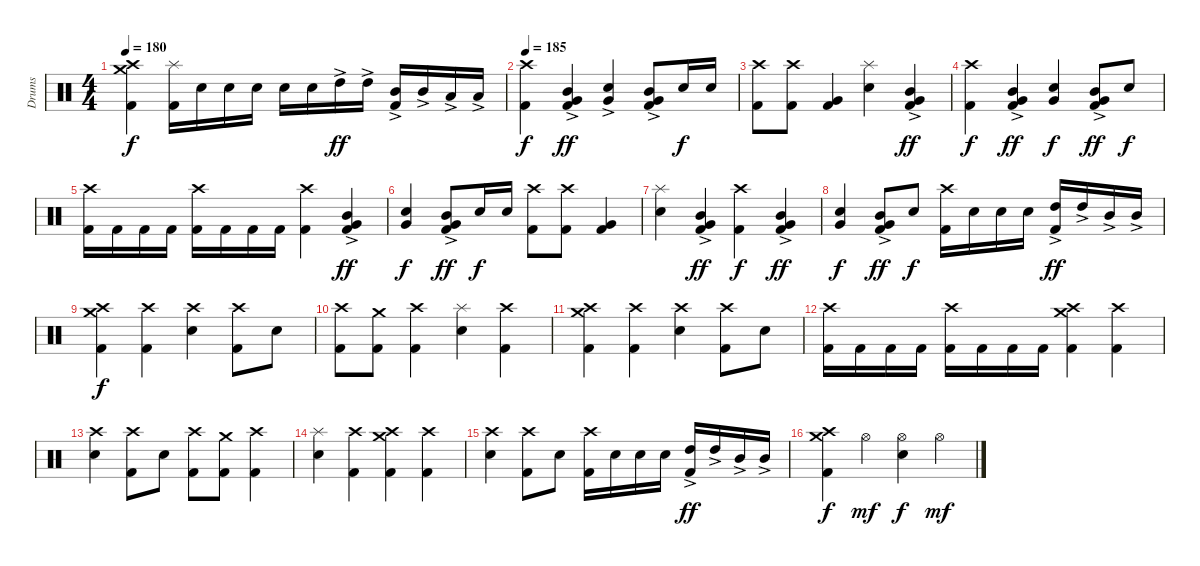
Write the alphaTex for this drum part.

\track ("Drums" "Drums") {instrument percussion}
\staff {score}
\articulation defaults
\ts (4 4)
\tempo 180
\clef neutral
\ks c
("Crash high (hit)" "Kick (hit) 2" "Crash medium (hit)").4{dy f} ("Splash (hit)" "Kick (hit) 2").16 "Snare (hit) 2".16 "Snare (hit) 2".16 "Snare (hit) 2".16 "Snare (hit) 2".16 "Snare (hit) 2".16 "High Tom (hit)"{ac}.16{dy ff} "High Tom (hit)"{ac}.16 ("Mid Tom (hit)"{ac} "Kick (hit) 2").16 "Mid Tom (hit)"{ac}.16 "Low Tom (hit)"{ac}.16 "Low Tom (hit)"{ac}.16 |
\tempo 185
("Crash high (hit)" "Kick (hit) 2").4{dy f} ("Kick (hit) 2" "Very Low Tom (hit)" "Mid Tom (hit)"{ac}).4{dy ff} ("Snare (hit) 2" "Very Low Tom (hit)"{ac}).4 ("Kick (hit) 2" "Very Low Tom (hit)" "Mid Tom (hit)"{ac}).8 "Snare (hit) 2".16{dy f} "Snare (hit) 2".16 |
("Kick (hit) 2" "Crash high (hit)").8 ("Kick (hit) 2" "Crash high (hit)").8 ("Very Low Tom (hit)" "Kick (hit) 2").4 ("Splash (hit)" "Snare (hit) 2").4 ("Very Low Tom (hit)" "Kick (hit) 2" "Mid Tom (hit)"{ac}).4{dy ff} |
("Crash high (hit)" "Kick (hit) 2").4{dy f} ("Mid Tom (hit)"{ac} "Very Low Tom (hit)" "Kick (hit) 2").4{dy ff} ("Snare (hit) 2" "Very Low Tom (hit)").4{dy f} ("Mid Tom (hit)"{ac} "Very Low Tom (hit)" "Kick (hit) 2").8{dy ff} "Snare (hit) 2".8{dy f} |
("Kick (hit) 2" "Crash high (hit)").16 "Kick (hit) 2".16 "Kick (hit) 2".16 "Kick (hit) 2".16 ("Kick (hit) 2" "Crash high (hit)").16 "Kick (hit) 2".16 "Kick (hit) 2".16 "Kick (hit) 2".16 ("Crash high (hit)" "Kick (hit) 2").4 ("Kick (hit) 2" "Very Low Tom (hit)" "Mid Tom (hit)"{ac}).4{dy ff} |
("Snare (hit) 2" "Very Low Tom (hit)").4{dy f} ("Kick (hit) 2" "Very Low Tom (hit)" "Mid Tom (hit)"{ac}).8{dy ff} "Snare (hit) 2".16{dy f} "Snare (hit) 2".16 ("Kick (hit) 2" "Crash high (hit)").8 ("Kick (hit) 2" "Crash high (hit)").8 ("Very Low Tom (hit)" "Kick (hit) 2").4 |
("Splash (hit)" "Snare (hit) 2").4 ("Very Low Tom (hit)" "Kick (hit) 2" "Mid Tom (hit)"{ac}).4{dy ff} ("Crash high (hit)" "Kick (hit) 2").4{dy f} ("Mid Tom (hit)"{ac} "Very Low Tom (hit)" "Kick (hit) 2").4{dy ff} |
("Snare (hit) 2" "Very Low Tom (hit)").4{dy f} ("Mid Tom (hit)"{ac} "Very Low Tom (hit)" "Kick (hit) 2").8{dy ff} "Snare (hit) 2".8{dy f} ("Kick (hit) 2" "Crash high (hit)").16 "Snare (hit) 2".16 "Snare (hit) 2".16 "Snare (hit) 2".16 ("Kick (hit) 2" "High Tom (hit)"{ac}).16{dy ff} "High Tom (hit)"{ac}.16 "Mid Tom (hit)"{ac}.16 "Mid Tom (hit)"{ac}.16 |
("Crash high (hit)" "Crash medium (hit)" "Kick (hit) 2").4{dy f} ("Crash high (hit)" "Kick (hit) 2").4 ("Crash high (hit)" "Snare (hit) 2").4 ("Crash high (hit)" "Kick (hit) 2").8 "Snare (hit) 2".8 |
("Kick (hit) 2" "Crash high (hit)").8 ("Kick (hit) 2" "Crash medium (hit)").8 ("Crash high (hit)" "Kick (hit) 2").4 ("Splash (hit)" "Snare (hit) 2").4 ("Crash high (hit)" "Kick (hit) 2").4 |
("Crash high (hit)" "Kick (hit) 2" "Crash medium (hit)").4 ("Crash high (hit)" "Kick (hit) 2").4 ("Crash high (hit)" "Snare (hit) 2").4 ("Kick (hit) 2" "Crash high (hit)").8 "Snare (hit) 2".8 |
("Kick (hit) 2" "Crash high (hit)").16 "Kick (hit) 2".16 "Kick (hit) 2".16 "Kick (hit) 2".16 ("Kick (hit) 2" "Crash high (hit)").16 "Kick (hit) 2".16 "Kick (hit) 2".16 "Kick (hit) 2".16 ("Crash high (hit)" "Crash medium (hit)" "Kick (hit) 2").4 ("Crash high (hit)" "Kick (hit) 2").4 |
("Crash high (hit)" "Snare (hit) 2").4 ("Crash high (hit)" "Kick (hit) 2").8 "Snare (hit) 2".8 ("Kick (hit) 2" "Crash high (hit)").8 ("Kick (hit) 2" "Crash medium (hit)").8 ("Crash high (hit)" "Kick (hit) 2").4 |
("Splash (hit)" "Snare (hit) 2").4 ("Crash high (hit)" "Kick (hit) 2").4 ("Crash high (hit)" "Kick (hit) 2" "Crash medium (hit)").4 ("Crash high (hit)" "Kick (hit) 2").4 |
("Crash high (hit)" "Snare (hit) 2").4 ("Kick (hit) 2" "Crash high (hit)").8 "Snare (hit) 2".8 ("Kick (hit) 2" "Crash high (hit)").16 "Snare (hit) 2".16 "Snare (hit) 2".16 "Snare (hit) 2".16 ("Kick (hit) 2" "High Tom (hit)"{ac}).16{dy ff} "High Tom (hit)"{ac}.16 "Mid Tom (hit)"{ac}.16 "Mid Tom (hit)"{ac}.16 |
("Crash high (hit)" "Crash medium (hit)" "Kick (hit) 2").4{dy f} "Hi-Hat (open)".4{dy mf} ("Hi-Hat (open)" "Snare (hit) 2").4{dy f} "Hi-Hat (open)".4{dy mf}
